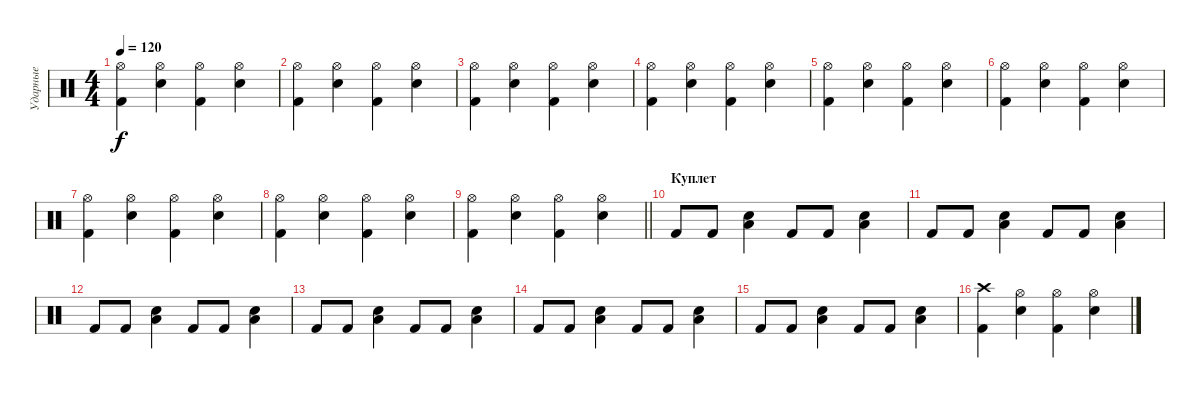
\track ("Ударные" "Ударные") {instrument percussion}
\staff {score}
\articulation defaults
\ts (4 4)
\tempo 120
\clef neutral
\ks c
("Hi-Hat (open)" "Kick (hit) 2").4{dy f} ("Hi-Hat (open)" "Snare (hit) 2").4 ("Hi-Hat (open)" "Kick (hit) 2").4 ("Hi-Hat (open)" "Snare (hit) 2").4 |
("Hi-Hat (open)" "Kick (hit) 2").4 ("Hi-Hat (open)" "Snare (hit) 2").4 ("Hi-Hat (open)" "Kick (hit) 2").4 ("Hi-Hat (open)" "Snare (hit) 2").4 |
("Hi-Hat (open)" "Kick (hit) 2").4 ("Hi-Hat (open)" "Snare (hit) 2").4 ("Hi-Hat (open)" "Kick (hit) 2").4 ("Hi-Hat (open)" "Snare (hit) 2").4 |
("Hi-Hat (open)" "Kick (hit) 2").4 ("Hi-Hat (open)" "Snare (hit) 2").4 ("Hi-Hat (open)" "Kick (hit) 2").4 ("Hi-Hat (open)" "Snare (hit) 2").4 |
("Hi-Hat (open)" "Kick (hit) 2").4 ("Hi-Hat (open)" "Snare (hit) 2").4 ("Hi-Hat (open)" "Kick (hit) 2").4 ("Hi-Hat (open)" "Snare (hit) 2").4 |
("Hi-Hat (open)" "Kick (hit) 2").4 ("Hi-Hat (open)" "Snare (hit) 2").4 ("Hi-Hat (open)" "Kick (hit) 2").4 ("Hi-Hat (open)" "Snare (hit) 2").4 |
("Hi-Hat (open)" "Kick (hit) 2").4 ("Hi-Hat (open)" "Snare (hit) 2").4 ("Hi-Hat (open)" "Kick (hit) 2").4 ("Hi-Hat (open)" "Snare (hit) 2").4 |
("Hi-Hat (open)" "Kick (hit) 2").4 ("Hi-Hat (open)" "Snare (hit) 2").4 ("Hi-Hat (open)" "Kick (hit) 2").4 ("Hi-Hat (open)" "Snare (hit) 2").4 |
\barLineRight lightlight
("Hi-Hat (open)" "Kick (hit) 2").4 ("Hi-Hat (open)" "Snare (hit) 2").4 ("Hi-Hat (open)" "Kick (hit) 2").4 ("Hi-Hat (open)" "Snare (hit) 2").4 |
\section ("" "Куплет")
"Kick (hit) 2".8 "Kick (hit) 2".8 ("Low Tom (hit)" "Snare (hit) 2").4 "Kick (hit) 2".8 "Kick (hit) 2".8 ("Low Tom (hit)" "Snare (hit) 2").4 |
"Kick (hit) 2".8 "Kick (hit) 2".8 ("Low Tom (hit)" "Snare (hit) 2").4 "Kick (hit) 2".8 "Kick (hit) 2".8 ("Low Tom (hit)" "Snare (hit) 2").4 |
"Kick (hit) 2".8 "Kick (hit) 2".8 ("Low Tom (hit)" "Snare (hit) 2").4 "Kick (hit) 2".8 "Kick (hit) 2".8 ("Low Tom (hit)" "Snare (hit) 2").4 |
"Kick (hit) 2".8 "Kick (hit) 2".8 ("Low Tom (hit)" "Snare (hit) 2").4 "Kick (hit) 2".8 "Kick (hit) 2".8 ("Low Tom (hit)" "Snare (hit) 2").4 |
"Kick (hit) 2".8 "Kick (hit) 2".8 ("Low Tom (hit)" "Snare (hit) 2").4 "Kick (hit) 2".8 "Kick (hit) 2".8 ("Low Tom (hit)" "Snare (hit) 2").4 |
"Kick (hit) 2".8 "Kick (hit) 2".8 ("Low Tom (hit)" "Snare (hit) 2").4 "Kick (hit) 2".8 "Kick (hit) 2".8 ("Low Tom (hit)" "Snare (hit) 2").4 |
("Crash high (hit)" "Kick (hit) 2").4 ("Hi-Hat (open)" "Snare (hit) 2").4 ("Hi-Hat (open)" "Kick (hit) 2").4 ("Hi-Hat (open)" "Snare (hit) 2").4
